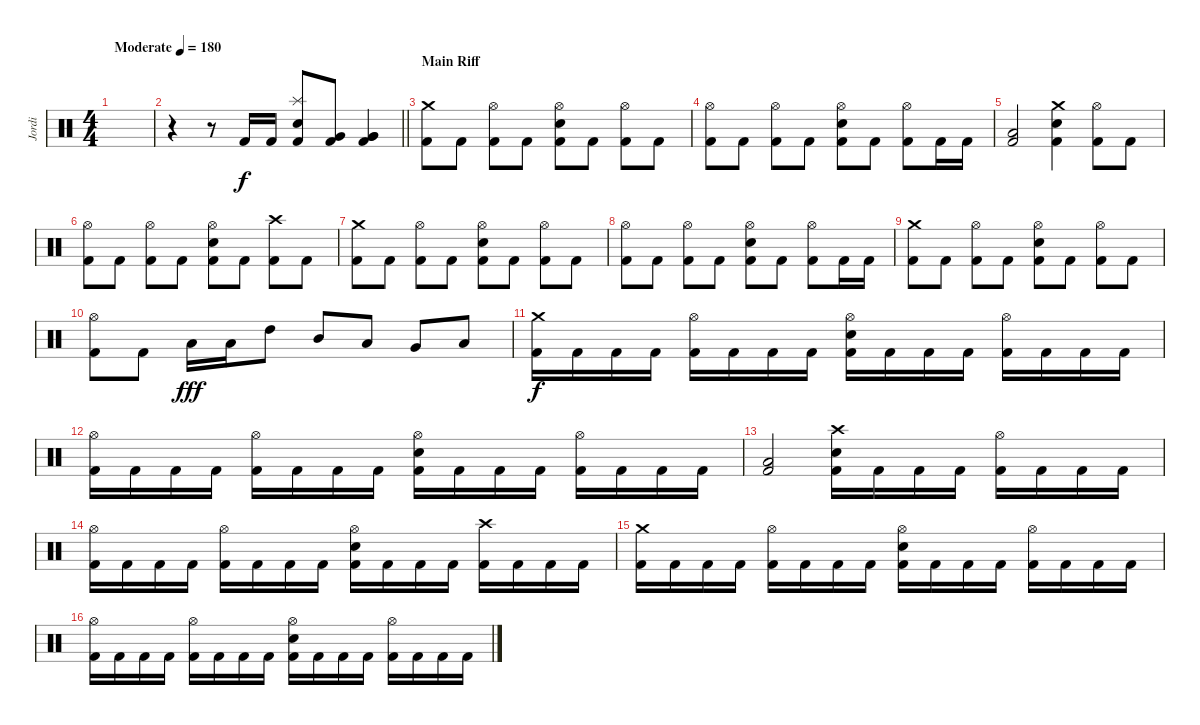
\track ("Jordi" "Jordi") {instrument percussion}
\staff {score}
\articulation defaults
\ts (4 4)
\tempo (180 "Moderate")
\clef neutral
\ks c
|
\barLineRight lightlight
r.4 r.8 "Kick (hit) 2".16 "Kick (hit) 2".16 ("Splash (hit)" "Snare (hit) 2" "Kick (hit) 2").8 ("Very Low Tom (hit)" "Kick (hit) 2").8 ("Very Low Tom (hit)" "Very Low Tom (hit)" "Kick (hit) 2").4 |
\section ("" "Main Riff")
("Crash medium (hit)" "Kick (hit) 2").8 "Kick (hit) 2".8 ("Hi-Hat (open)" "Kick (hit) 2").8 "Kick (hit) 2".8 ("Hi-Hat (open)" "Snare (hit) 2" "Kick (hit) 2").8 "Kick (hit) 2".8 ("Hi-Hat (open)" "Kick (hit) 2").8 "Kick (hit) 2".8 |
("Hi-Hat (open)" "Kick (hit) 2").8 "Kick (hit) 2".8 ("Hi-Hat (open)" "Kick (hit) 2").8 "Kick (hit) 2".8 ("Hi-Hat (open)" "Snare (hit) 2" "Kick (hit) 2").8 "Kick (hit) 2".8 ("Hi-Hat (open)" "Kick (hit) 2").8 "Kick (hit) 2".16 "Kick (hit) 2".16 |
("Low Tom (hit)" "Kick (hit) 2").2 ("Crash medium (hit)" "Snare (hit) 2" "Kick (hit) 2").4 ("Hi-Hat (open)" "Kick (hit) 2").8 "Kick (hit) 2".8 |
("Hi-Hat (open)" "Kick (hit) 2").8 "Kick (hit) 2".8 ("Hi-Hat (open)" "Kick (hit) 2").8 "Kick (hit) 2".8 ("Hi-Hat (open)" "Snare (hit) 2" "Kick (hit) 2").8 "Kick (hit) 2".8 ("Crash high (hit)" "Kick (hit) 2").8 "Kick (hit) 2".8 |
("Crash medium (hit)" "Kick (hit) 2").8 "Kick (hit) 2".8 ("Hi-Hat (open)" "Kick (hit) 2").8 "Kick (hit) 2".8 ("Hi-Hat (open)" "Snare (hit) 2" "Kick (hit) 2").8 "Kick (hit) 2".8 ("Hi-Hat (open)" "Kick (hit) 2").8 "Kick (hit) 2".8 |
("Hi-Hat (open)" "Kick (hit) 2").8 "Kick (hit) 2".8 ("Hi-Hat (open)" "Kick (hit) 2").8 "Kick (hit) 2".8 ("Hi-Hat (open)" "Snare (hit) 2" "Kick (hit) 2").8 "Kick (hit) 2".8 ("Hi-Hat (open)" "Kick (hit) 2").8 "Kick (hit) 2".16 "Kick (hit) 2".16 |
("Crash medium (hit)" "Kick (hit) 2").8 "Kick (hit) 2".8 ("Hi-Hat (open)" "Kick (hit) 2").8 "Kick (hit) 2".8 ("Hi-Hat (open)" "Snare (hit) 2" "Kick (hit) 2").8 "Kick (hit) 2".8 ("Hi-Hat (open)" "Kick (hit) 2").8 "Kick (hit) 2".8 |
("Hi-Hat (open)" "Kick (hit) 2").8 "Kick (hit) 2".8 "Low Tom (hit)".16{dy fff} "Low Tom (hit)".16 "High Tom (hit)".8 "Mid Tom (hit)".8 "Low Tom (hit)".8 "Very Low Tom (hit)".8 "Low Floor Tom (hit)".8 |
("Crash medium (hit)" "Kick (hit) 2").16{dy f} "Kick (hit) 2".16 "Kick (hit) 2".16 "Kick (hit) 2".16 ("Hi-Hat (open)" "Kick (hit) 2").16 "Kick (hit) 2".16 "Kick (hit) 2".16 "Kick (hit) 2".16 ("Hi-Hat (open)" "Snare (hit) 2" "Kick (hit) 2").16 "Kick (hit) 2".16 "Kick (hit) 2".16 "Kick (hit) 2".16 ("Hi-Hat (open)" "Kick (hit) 2").16 "Kick (hit) 2".16 "Kick (hit) 2".16 "Kick (hit) 2".16 |
("Hi-Hat (open)" "Kick (hit) 2").16 "Kick (hit) 2".16 "Kick (hit) 2".16 "Kick (hit) 2".16 ("Hi-Hat (open)" "Kick (hit) 2").16 "Kick (hit) 2".16 "Kick (hit) 2".16 "Kick (hit) 2".16 ("Hi-Hat (open)" "Snare (hit) 2" "Kick (hit) 2").16 "Kick (hit) 2".16 "Kick (hit) 2".16 "Kick (hit) 2".16 ("Hi-Hat (open)" "Kick (hit) 2").16 "Kick (hit) 2".16 "Kick (hit) 2".16 "Kick (hit) 2".16 |
("Low Tom (hit)" "Kick (hit) 2").2 ("Crash high (hit)" "Snare (hit) 2" "Kick (hit) 2").16 "Kick (hit) 2".16 "Kick (hit) 2".16 "Kick (hit) 2".16 ("Hi-Hat (open)" "Kick (hit) 2").16 "Kick (hit) 2".16 "Kick (hit) 2".16 "Kick (hit) 2".16 |
("Hi-Hat (open)" "Kick (hit) 2").16 "Kick (hit) 2".16 "Kick (hit) 2".16 "Kick (hit) 2".16 ("Hi-Hat (open)" "Kick (hit) 2").16 "Kick (hit) 2".16 "Kick (hit) 2".16 "Kick (hit) 2".16 ("Hi-Hat (open)" "Snare (hit) 2" "Kick (hit) 2").16 "Kick (hit) 2".16 "Kick (hit) 2".16 "Kick (hit) 2".16 ("Crash high (hit)" "Kick (hit) 2").16 "Kick (hit) 2".16 "Kick (hit) 2".16 "Kick (hit) 2".16 |
("Crash medium (hit)" "Kick (hit) 2").16 "Kick (hit) 2".16 "Kick (hit) 2".16 "Kick (hit) 2".16 ("Hi-Hat (open)" "Kick (hit) 2").16 "Kick (hit) 2".16 "Kick (hit) 2".16 "Kick (hit) 2".16 ("Hi-Hat (open)" "Snare (hit) 2" "Kick (hit) 2").16 "Kick (hit) 2".16 "Kick (hit) 2".16 "Kick (hit) 2".16 ("Hi-Hat (open)" "Kick (hit) 2").16 "Kick (hit) 2".16 "Kick (hit) 2".16 "Kick (hit) 2".16 |
("Hi-Hat (open)" "Kick (hit) 2").16 "Kick (hit) 2".16 "Kick (hit) 2".16 "Kick (hit) 2".16 ("Hi-Hat (open)" "Kick (hit) 2").16 "Kick (hit) 2".16 "Kick (hit) 2".16 "Kick (hit) 2".16 ("Hi-Hat (open)" "Snare (hit) 2" "Kick (hit) 2").16 "Kick (hit) 2".16 "Kick (hit) 2".16 "Kick (hit) 2".16 ("Hi-Hat (open)" "Kick (hit) 2").16 "Kick (hit) 2".16 "Kick (hit) 2".16 "Kick (hit) 2".16
